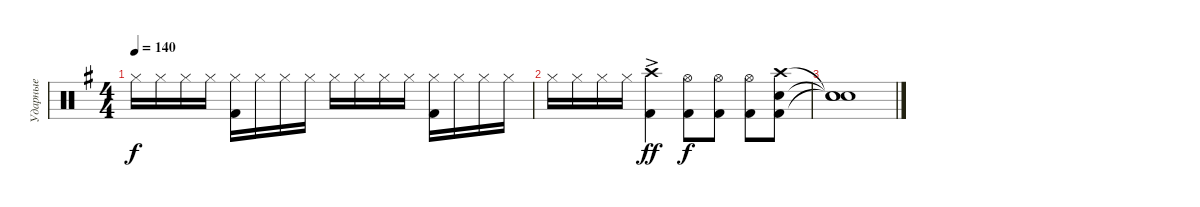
\track ("Ударные" "Ударные") {instrument percussion}
\staff {score}
\articulation defaults
\ts (4 4)
\tempo 140
\clef neutral
\ks g "Hi-Hat (closed)".16{dy f} "Hi-Hat (closed)".16 "Hi-Hat (closed)".16 "Hi-Hat (closed)".16
("Hi-Hat (closed)" "Kick (hit) 2").16 "Hi-Hat (closed)".16 "Hi-Hat (closed)".16 "Hi-Hat (closed)".16 "Hi-Hat (closed)".16 "Hi-Hat (closed)".16 "Hi-Hat (closed)".16 "Hi-Hat (closed)".16 ("Hi-Hat (closed)" "Kick (hit) 2").16 "Hi-Hat (closed)".16 "Hi-Hat (closed)".16 "Hi-Hat (closed)".16 |
"Hi-Hat (closed)".16 "Hi-Hat (closed)".16 "Hi-Hat (closed)".16 "Hi-Hat (closed)".16 ("Kick (hit) 2" "Crash high (hit)"{ac}).4{dy ff} ("Kick (hit) 2" "Hi-Hat (open)").8{dy f} ("Kick (hit) 2" "Hi-Hat (open)").8 ("Kick (hit) 2" "Hi-Hat (open)").8 ("Kick (hit) 2" "Snare (hit) 2" "Crash high (hit)").8 |
("Snare (hit)"{t} "Snare (hit)"{t} "Snare (hit)"{t}).1
